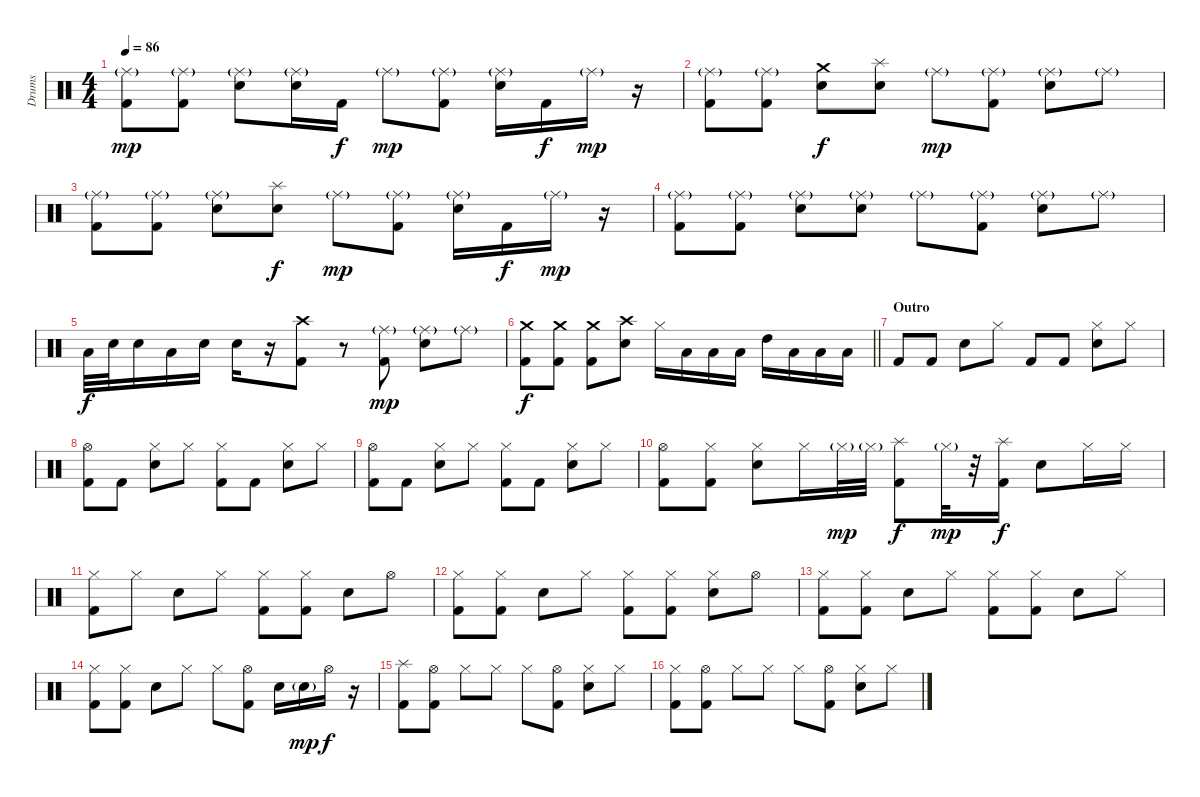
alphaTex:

\track ("Drums" "Drums") {instrument percussion}
\staff {score}
\articulation defaults
\ts (4 4)
\tempo 86
\clef neutral
\ks aminor
("Ride (middle)"{g} "Kick (hit) 2").8{dy mp} ("Ride (middle)"{g} "Kick (hit) 2").8 ("Ride (middle)"{g} "Snare (hit) 2").8 ("Ride (middle)"{g} "Snare (hit) 2").16 "Kick (hit) 2".16{dy f} "Ride (middle)"{g}.8{dy mp} ("Ride (middle)"{g} "Kick (hit) 2").8 ("Ride (middle)"{g} "Snare (hit) 2").16 "Kick (hit) 2".16{dy f} "Ride (middle)"{g}.16{dy mp} r.16 |
("Ride (middle)"{g} "Kick (hit) 2").8 ("Ride (middle)"{g} "Kick (hit) 2").8 ("Crash medium (hit)" "Snare (hit) 2").8{dy f} ("Splash (hit)" "Snare (hit) 2").8 "Ride (middle)"{g}.8{dy mp} ("Ride (middle)"{g} "Kick (hit) 2").8 ("Ride (middle)"{g} "Snare (hit) 2").8 "Ride (middle)"{g}.8 |
("Ride (middle)"{g} "Kick (hit) 2").8 ("Ride (middle)"{g} "Kick (hit) 2").8 ("Ride (middle)"{g} "Snare (hit) 2").8 ("Splash (hit)" "Snare (hit) 2").8{dy f} "Ride (middle)"{g}.8{dy mp} ("Ride (middle)"{g} "Kick (hit) 2").8 ("Ride (middle)"{g} "Snare (hit) 2").16 "Kick (hit) 2".16{dy f} "Ride (middle)"{g}.16{dy mp} r.16 |
("Ride (middle)"{g} "Kick (hit) 2").8 ("Ride (middle)"{g} "Kick (hit) 2").8 ("Ride (middle)"{g} "Snare (hit) 2").8 ("Ride (middle)"{g} "Snare (hit) 2").8 "Ride (middle)"{g}.8 ("Ride (middle)"{g} "Kick (hit) 2").8 ("Ride (middle)"{g} "Snare (hit) 2").8 "Ride (middle)"{g}.8 |
"Low Tom (hit)".32{dy f} "Snare (hit) 2".32 "Snare (hit) 2".16 "Low Tom (hit)".16 "Snare (hit) 2".16 "Snare (hit) 2".16 r.16 ("Crash high (hit)" "Kick (hit) 2").8 r.8 ("Ride (middle)"{g} "Kick (hit) 2").8{dy mp} ("Ride (middle)"{g} "Snare (hit) 2").8 "Ride (middle)"{g}.8 |
\barLineRight lightlight
("Crash medium (hit)" "Kick (hit) 2").8{dy f} ("Crash medium (hit)" "Kick (hit) 2").8 ("Crash medium (hit)" "Kick (hit) 2").8 ("Crash high (hit)" "Snare (hit) 2").8 "Hi-Hat (closed)".16 "Low Tom (hit)".16 "Low Tom (hit)".16 "Low Tom (hit)".16 "High Tom (hit)".16 "Low Floor Tom (hit)".16 "Low Floor Tom (hit)".16 "Low Floor Tom (hit)".16 |
\section ("" "Outro")
"Kick (hit) 2".8 "Kick (hit) 2".8 "Snare (hit) 2".8 "Hi-Hat (closed)".8 "Kick (hit) 2".8 "Kick (hit) 2".8 ("Hi-Hat (closed)" "Snare (hit) 2").8 "Hi-Hat (closed)".8 |
("Hi-Hat (open)" "Kick (hit) 2").8 "Kick (hit) 2".8 ("Hi-Hat (closed)" "Snare (hit) 2").8 "Hi-Hat (closed)".8 ("Hi-Hat (closed)" "Kick (hit) 2").8 "Kick (hit) 2".8 ("Hi-Hat (closed)" "Snare (hit) 2").8 "Hi-Hat (closed)".8 |
("Hi-Hat (open)" "Kick (hit) 2").8 "Kick (hit) 2".8 ("Hi-Hat (closed)" "Snare (hit) 2").8 "Hi-Hat (closed)".8 ("Hi-Hat (closed)" "Kick (hit) 2").8 "Kick (hit) 2".8 ("Hi-Hat (closed)" "Snare (hit) 2").8 "Hi-Hat (closed)".8 |
("Hi-Hat (open)" "Kick (hit) 2").8 ("Hi-Hat (closed)" "Kick (hit) 2").8 ("Hi-Hat (closed)" "Snare (hit) 2").8 "Hi-Hat (closed)".16 "Hi-Hat (closed)"{g}.32{dy mp} "Hi-Hat (closed)"{g}.32 ("Splash (hit)" "Kick (hit) 2").8{dy f} "Hi-Hat (closed)"{g}.32{dy mp} r.32 ("Splash (hit)" "Kick (hit) 2").16{dy f} "Snare (hit) 2".8 "Hi-Hat (closed)".16 "Hi-Hat (closed)".16 |
("Hi-Hat (closed)" "Kick (hit) 2").8 "Hi-Hat (closed)".8 "Snare (hit) 2".8 "Hi-Hat (closed)".8 ("Hi-Hat (closed)" "Kick (hit) 2").8 ("Hi-Hat (closed)" "Kick (hit) 2").8 "Snare (hit) 2".8 "Hi-Hat (open)".8 |
("Hi-Hat (closed)" "Kick (hit) 2").8 ("Hi-Hat (closed)" "Kick (hit) 2").8 "Snare (hit) 2".8 "Hi-Hat (closed)".8 ("Hi-Hat (closed)" "Kick (hit) 2").8 ("Hi-Hat (closed)" "Kick (hit) 2").8 ("Hi-Hat (closed)" "Snare (hit) 2").8 "Hi-Hat (open)".8 |
("Hi-Hat (closed)" "Kick (hit) 2").8 ("Hi-Hat (closed)" "Kick (hit) 2").8 "Snare (hit) 2".8 "Hi-Hat (closed)".8 ("Hi-Hat (closed)" "Kick (hit) 2").8 ("Hi-Hat (closed)" "Kick (hit) 2").8 "Snare (hit) 2".8 "Hi-Hat (closed)".8 |
("Hi-Hat (closed)" "Kick (hit) 2").8 ("Hi-Hat (closed)" "Kick (hit) 2").8 "Snare (hit) 2".8 "Hi-Hat (closed)".8 "Hi-Hat (closed)".8 ("Hi-Hat (open)" "Kick (hit) 2").8 "Snare (hit) 2".16 "Snare (hit) 2"{g}.16{dy mp} "Hi-Hat (open)".16{dy f} r.16 |
("Splash (hit)" "Kick (hit) 2").8 ("Hi-Hat (open)" "Kick (hit) 2").8 "Hi-Hat (closed)".8 "Hi-Hat (closed)".8 "Hi-Hat (closed)".8 ("Hi-Hat (open)" "Kick (hit) 2").8 ("Hi-Hat (closed)" "Snare (hit) 2").8 "Hi-Hat (closed)".8 |
("Hi-Hat (closed)" "Kick (hit) 2").8 ("Hi-Hat (open)" "Kick (hit) 2").8 "Hi-Hat (closed)".8 "Hi-Hat (closed)".8 "Hi-Hat (closed)".8 ("Hi-Hat (open)" "Kick (hit) 2").8 ("Hi-Hat (closed)" "Snare (hit) 2").8 "Hi-Hat (closed)".8
